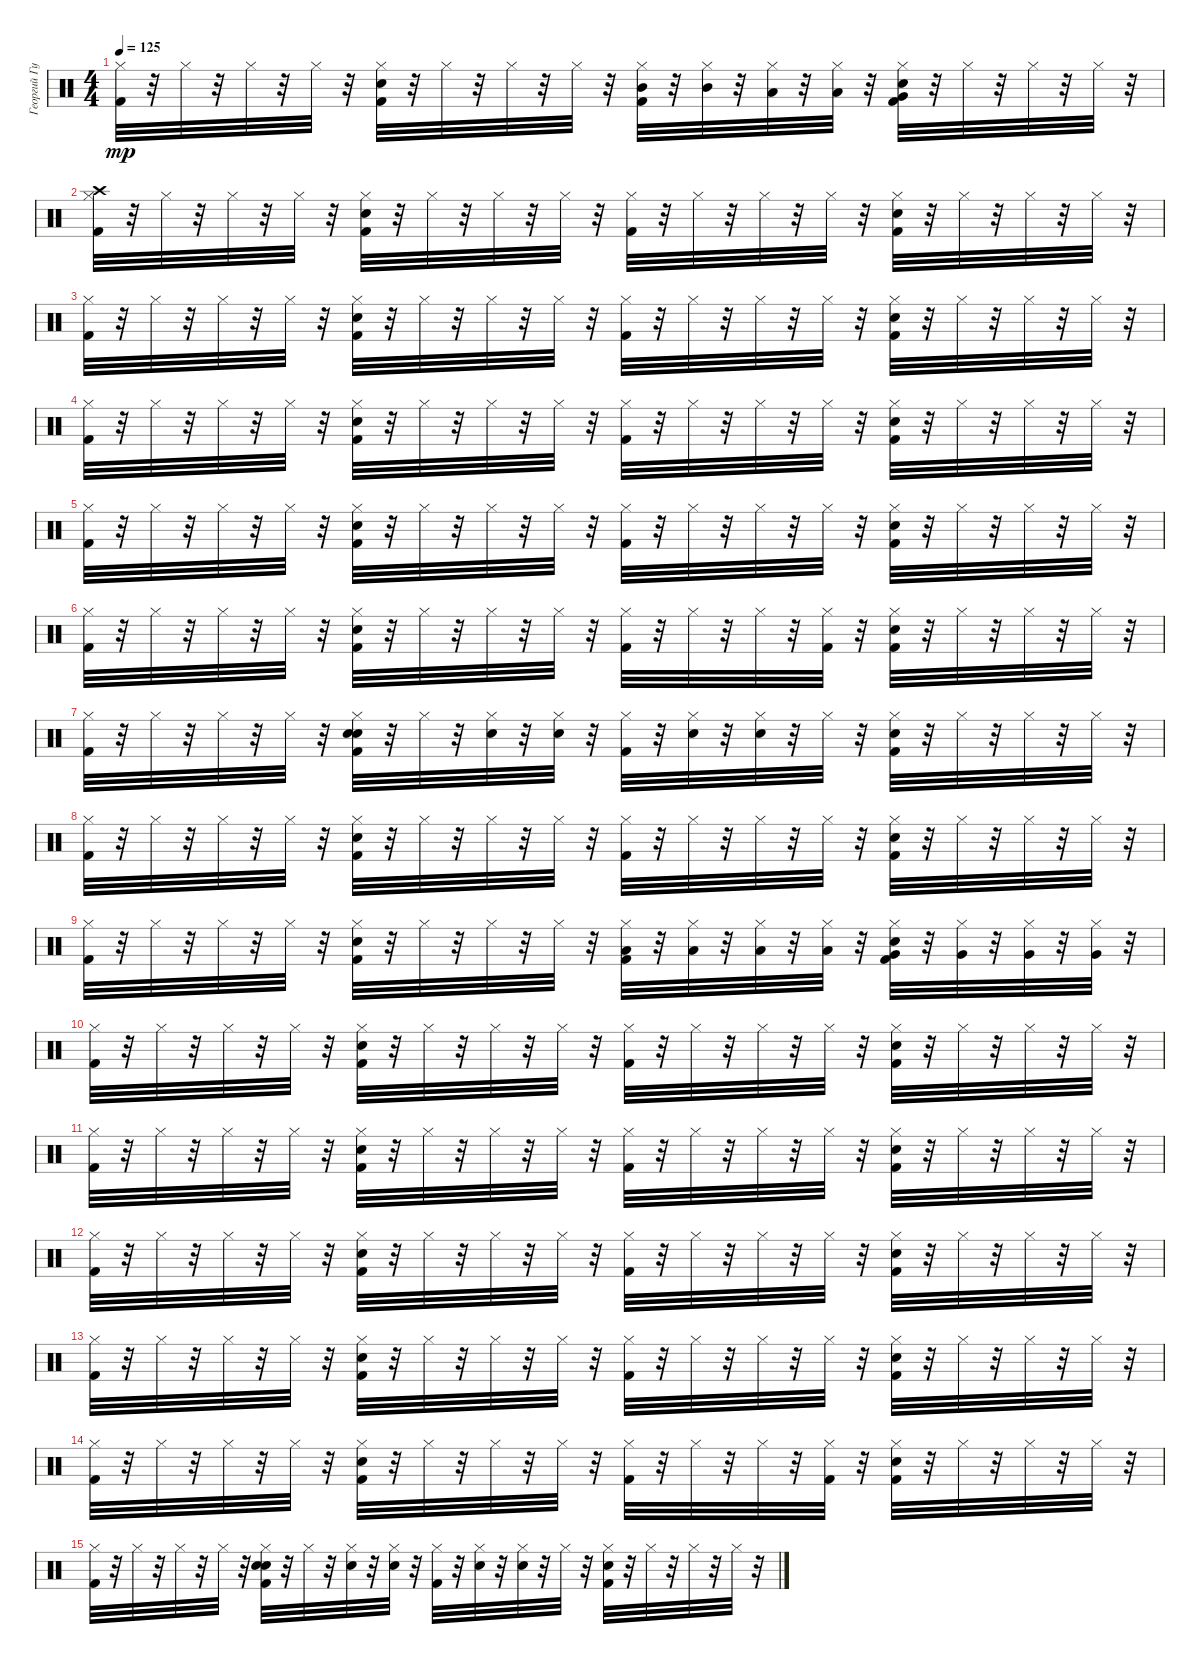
\track ("Георгий Гурьянов" "Георгий Гу") {instrument percussion}
\staff {score}
\articulation defaults
\ts (4 4)
\tempo 125
\clef neutral
\ks c
("Kick (hit) 2" "Hi-Hat (closed)").32{dy mp} r.32 "Hi-Hat (closed)".32 r.32 "Hi-Hat (closed)".32 r.32 "Hi-Hat (closed)".32 r.32 ("Kick (hit) 2" "Snare (hit) 2" "Hi-Hat (closed)").32 r.32 "Hi-Hat (closed)".32 r.32 "Hi-Hat (closed)".32 r.32 "Hi-Hat (closed)".32 r.32 ("Mid Tom (hit)" "Kick (hit) 2" "Hi-Hat (closed)").32 r.32 ("Mid Tom (hit)" "Hi-Hat (closed)").32 r.32 ("Low Tom (hit)" "Hi-Hat (closed)").32 r.32 ("Low Tom (hit)" "Hi-Hat (closed)").32 r.32 ("Very Low Tom (hit)" "Kick (hit) 2" "Snare (hit) 2" "Hi-Hat (closed)").32 r.32 "Hi-Hat (closed)".32 r.32 "Hi-Hat (closed)".32 r.32 "Hi-Hat (closed)".32 r.32 |
("Crash high (hit)" "Kick (hit) 2" "Hi-Hat (closed)").32 r.32 "Hi-Hat (closed)".32 r.32 "Hi-Hat (closed)".32 r.32 "Hi-Hat (closed)".32 r.32 ("Kick (hit) 2" "Snare (hit) 2" "Hi-Hat (closed)").32 r.32 "Hi-Hat (closed)".32 r.32 "Hi-Hat (closed)".32 r.32 "Hi-Hat (closed)".32 r.32 ("Kick (hit) 2" "Hi-Hat (closed)").32 r.32 "Hi-Hat (closed)".32 r.32 "Hi-Hat (closed)".32 r.32 "Hi-Hat (closed)".32 r.32 ("Kick (hit) 2" "Snare (hit) 2" "Hi-Hat (closed)").32 r.32 "Hi-Hat (closed)".32 r.32 "Hi-Hat (closed)".32 r.32 "Hi-Hat (closed)".32 r.32 |
("Kick (hit) 2" "Hi-Hat (closed)").32 r.32 "Hi-Hat (closed)".32 r.32 "Hi-Hat (closed)".32 r.32 "Hi-Hat (closed)".32 r.32 ("Kick (hit) 2" "Snare (hit) 2" "Hi-Hat (closed)").32 r.32 "Hi-Hat (closed)".32 r.32 "Hi-Hat (closed)".32 r.32 "Hi-Hat (closed)".32 r.32 ("Kick (hit) 2" "Hi-Hat (closed)").32 r.32 "Hi-Hat (closed)".32 r.32 "Hi-Hat (closed)".32 r.32 "Hi-Hat (closed)".32 r.32 ("Kick (hit) 2" "Snare (hit) 2" "Hi-Hat (closed)").32 r.32 "Hi-Hat (closed)".32 r.32 "Hi-Hat (closed)".32 r.32 "Hi-Hat (closed)".32 r.32 |
("Kick (hit) 2" "Hi-Hat (closed)").32 r.32 "Hi-Hat (closed)".32 r.32 "Hi-Hat (closed)".32 r.32 "Hi-Hat (closed)".32 r.32 ("Kick (hit) 2" "Snare (hit) 2" "Hi-Hat (closed)").32 r.32 "Hi-Hat (closed)".32 r.32 "Hi-Hat (closed)".32 r.32 "Hi-Hat (closed)".32 r.32 ("Kick (hit) 2" "Hi-Hat (closed)").32 r.32 "Hi-Hat (closed)".32 r.32 "Hi-Hat (closed)".32 r.32 "Hi-Hat (closed)".32 r.32 ("Kick (hit) 2" "Snare (hit) 2" "Hi-Hat (closed)").32 r.32 "Hi-Hat (closed)".32 r.32 "Hi-Hat (closed)".32 r.32 "Hi-Hat (closed)".32 r.32 |
("Kick (hit) 2" "Hi-Hat (closed)").32 r.32 "Hi-Hat (closed)".32 r.32 "Hi-Hat (closed)".32 r.32 "Hi-Hat (closed)".32 r.32 ("Kick (hit) 2" "Snare (hit) 2" "Hi-Hat (closed)").32 r.32 "Hi-Hat (closed)".32 r.32 "Hi-Hat (closed)".32 r.32 "Hi-Hat (closed)".32 r.32 ("Kick (hit) 2" "Hi-Hat (closed)").32 r.32 "Hi-Hat (closed)".32 r.32 "Hi-Hat (closed)".32 r.32 "Hi-Hat (closed)".32 r.32 ("Kick (hit) 2" "Snare (hit) 2" "Hi-Hat (closed)").32 r.32 "Hi-Hat (closed)".32 r.32 "Hi-Hat (closed)".32 r.32 "Hi-Hat (closed)".32 r.32 |
("Kick (hit) 2" "Hi-Hat (closed)").32 r.32 "Hi-Hat (closed)".32 r.32 "Hi-Hat (closed)".32 r.32 "Hi-Hat (closed)".32 r.32 ("Kick (hit) 2" "Snare (hit) 2" "Hi-Hat (closed)").32 r.32 "Hi-Hat (closed)".32 r.32 "Hi-Hat (closed)".32 r.32 "Hi-Hat (closed)".32 r.32 ("Kick (hit) 2" "Hi-Hat (closed)").32 r.32 "Hi-Hat (closed)".32 r.32 "Hi-Hat (closed)".32 r.32 ("Kick (hit) 2" "Hi-Hat (closed)").32 r.32 ("Kick (hit) 2" "Snare (hit) 2" "Hi-Hat (closed)").32 r.32 "Hi-Hat (closed)".32 r.32 "Hi-Hat (closed)".32 r.32 "Hi-Hat (closed)".32 r.32 |
("Kick (hit) 2" "Hi-Hat (closed)").32 r.32 "Hi-Hat (closed)".32 r.32 "Hi-Hat (closed)".32 r.32 "Hi-Hat (closed)".32 r.32 ("Hand Clap (hit)" "Kick (hit) 2" "Snare (hit) 2" "Hi-Hat (closed)").32 r.32 "Hi-Hat (closed)".32 r.32 ("Hand Clap (hit)" "Hi-Hat (closed)").32 r.32 ("Hand Clap (hit)" "Hi-Hat (closed)").32 r.32 ("Kick (hit) 2" "Hi-Hat (closed)").32 r.32 ("Hand Clap (hit)" "Hi-Hat (closed)").32 r.32 ("Hand Clap (hit)" "Hi-Hat (closed)").32 r.32 "Hi-Hat (closed)".32 r.32 ("Kick (hit) 2" "Snare (hit) 2" "Hi-Hat (closed)").32 r.32 "Hi-Hat (closed)".32 r.32 "Hi-Hat (closed)".32 r.32 "Hi-Hat (closed)".32 r.32 |
("Kick (hit) 2" "Hi-Hat (closed)").32 r.32 "Hi-Hat (closed)".32 r.32 "Hi-Hat (closed)".32 r.32 "Hi-Hat (closed)".32 r.32 ("Kick (hit) 2" "Snare (hit) 2" "Hi-Hat (closed)").32 r.32 "Hi-Hat (closed)".32 r.32 "Hi-Hat (closed)".32 r.32 "Hi-Hat (closed)".32 r.32 ("Kick (hit) 2" "Hi-Hat (closed)").32 r.32 "Hi-Hat (closed)".32 r.32 "Hi-Hat (closed)".32 r.32 "Hi-Hat (closed)".32 r.32 ("Kick (hit) 2" "Snare (hit) 2" "Hi-Hat (closed)").32 r.32 "Hi-Hat (closed)".32 r.32 "Hi-Hat (closed)".32 r.32 "Hi-Hat (closed)".32 r.32 |
("Kick (hit) 2" "Hi-Hat (closed)").32 r.32 "Hi-Hat (closed)".32 r.32 "Hi-Hat (closed)".32 r.32 "Hi-Hat (closed)".32 r.32 ("Kick (hit) 2" "Snare (hit) 2" "Hi-Hat (closed)").32 r.32 "Hi-Hat (closed)".32 r.32 "Hi-Hat (closed)".32 r.32 "Hi-Hat (closed)".32 r.32 ("Low Tom (hit)" "Kick (hit) 2" "Hi-Hat (closed)").32 r.32 ("Low Tom (hit)" "Hi-Hat (closed)").32 r.32 ("Low Tom (hit)" "Hi-Hat (closed)").32 r.32 ("Low Tom (hit)" "Hi-Hat (closed)").32 r.32 ("Very Low Tom (hit)" "Kick (hit) 2" "Snare (hit) 2" "Hi-Hat (closed)").32 r.32 ("Very Low Tom (hit)" "Hi-Hat (closed)").32 r.32 ("Very Low Tom (hit)" "Hi-Hat (closed)").32 r.32 ("Very Low Tom (hit)" "Hi-Hat (closed)").32 r.32 |
("Kick (hit) 2" "Hi-Hat (closed)").32 r.32 "Hi-Hat (closed)".32 r.32 "Hi-Hat (closed)".32 r.32 "Hi-Hat (closed)".32 r.32 ("Kick (hit) 2" "Snare (hit) 2" "Hi-Hat (closed)").32 r.32 "Hi-Hat (closed)".32 r.32 "Hi-Hat (closed)".32 r.32 "Hi-Hat (closed)".32 r.32 ("Kick (hit) 2" "Hi-Hat (closed)").32 r.32 "Hi-Hat (closed)".32 r.32 "Hi-Hat (closed)".32 r.32 "Hi-Hat (closed)".32 r.32 ("Kick (hit) 2" "Snare (hit) 2" "Hi-Hat (closed)").32 r.32 "Hi-Hat (closed)".32 r.32 "Hi-Hat (closed)".32 r.32 "Hi-Hat (closed)".32 r.32 |
("Kick (hit) 2" "Hi-Hat (closed)").32 r.32 "Hi-Hat (closed)".32 r.32 "Hi-Hat (closed)".32 r.32 "Hi-Hat (closed)".32 r.32 ("Kick (hit) 2" "Snare (hit) 2" "Hi-Hat (closed)").32 r.32 "Hi-Hat (closed)".32 r.32 "Hi-Hat (closed)".32 r.32 "Hi-Hat (closed)".32 r.32 ("Kick (hit) 2" "Hi-Hat (closed)").32 r.32 "Hi-Hat (closed)".32 r.32 "Hi-Hat (closed)".32 r.32 "Hi-Hat (closed)".32 r.32 ("Kick (hit) 2" "Snare (hit) 2" "Hi-Hat (closed)").32 r.32 "Hi-Hat (closed)".32 r.32 "Hi-Hat (closed)".32 r.32 "Hi-Hat (closed)".32 r.32 |
("Kick (hit) 2" "Hi-Hat (closed)").32 r.32 "Hi-Hat (closed)".32 r.32 "Hi-Hat (closed)".32 r.32 "Hi-Hat (closed)".32 r.32 ("Kick (hit) 2" "Snare (hit) 2" "Hi-Hat (closed)").32 r.32 "Hi-Hat (closed)".32 r.32 "Hi-Hat (closed)".32 r.32 "Hi-Hat (closed)".32 r.32 ("Kick (hit) 2" "Hi-Hat (closed)").32 r.32 "Hi-Hat (closed)".32 r.32 "Hi-Hat (closed)".32 r.32 "Hi-Hat (closed)".32 r.32 ("Kick (hit) 2" "Snare (hit) 2" "Hi-Hat (closed)").32 r.32 "Hi-Hat (closed)".32 r.32 "Hi-Hat (closed)".32 r.32 "Hi-Hat (closed)".32 r.32 |
("Kick (hit) 2" "Hi-Hat (closed)").32 r.32 "Hi-Hat (closed)".32 r.32 "Hi-Hat (closed)".32 r.32 "Hi-Hat (closed)".32 r.32 ("Kick (hit) 2" "Snare (hit) 2" "Hi-Hat (closed)").32 r.32 "Hi-Hat (closed)".32 r.32 "Hi-Hat (closed)".32 r.32 "Hi-Hat (closed)".32 r.32 ("Kick (hit) 2" "Hi-Hat (closed)").32 r.32 "Hi-Hat (closed)".32 r.32 "Hi-Hat (closed)".32 r.32 "Hi-Hat (closed)".32 r.32 ("Kick (hit) 2" "Snare (hit) 2" "Hi-Hat (closed)").32 r.32 "Hi-Hat (closed)".32 r.32 "Hi-Hat (closed)".32 r.32 "Hi-Hat (closed)".32 r.32 |
("Kick (hit) 2" "Hi-Hat (closed)").32 r.32 "Hi-Hat (closed)".32 r.32 "Hi-Hat (closed)".32 r.32 "Hi-Hat (closed)".32 r.32 ("Kick (hit) 2" "Snare (hit) 2" "Hi-Hat (closed)").32 r.32 "Hi-Hat (closed)".32 r.32 "Hi-Hat (closed)".32 r.32 "Hi-Hat (closed)".32 r.32 ("Kick (hit) 2" "Hi-Hat (closed)").32 r.32 "Hi-Hat (closed)".32 r.32 "Hi-Hat (closed)".32 r.32 ("Kick (hit) 2" "Hi-Hat (closed)").32 r.32 ("Kick (hit) 2" "Snare (hit) 2" "Hi-Hat (closed)").32 r.32 "Hi-Hat (closed)".32 r.32 "Hi-Hat (closed)".32 r.32 "Hi-Hat (closed)".32 r.32 |
("Kick (hit) 2" "Hi-Hat (closed)").32 r.32 "Hi-Hat (closed)".32 r.32 "Hi-Hat (closed)".32 r.32 "Hi-Hat (closed)".32 r.32 ("Hand Clap (hit)" "Kick (hit) 2" "Snare (hit) 2" "Hi-Hat (closed)").32 r.32 "Hi-Hat (closed)".32 r.32 ("Hand Clap (hit)" "Hi-Hat (closed)").32 r.32 ("Hand Clap (hit)" "Hi-Hat (closed)").32 r.32 ("Kick (hit) 2" "Hi-Hat (closed)").32 r.32 ("Hand Clap (hit)" "Hi-Hat (closed)").32 r.32 ("Hand Clap (hit)" "Hi-Hat (closed)").32 r.32 "Hi-Hat (closed)".32 r.32 ("Kick (hit) 2" "Snare (hit) 2" "Hi-Hat (closed)").32 r.32 "Hi-Hat (closed)".32 r.32 "Hi-Hat (closed)".32 r.32 "Hi-Hat (closed)".32 r.32
